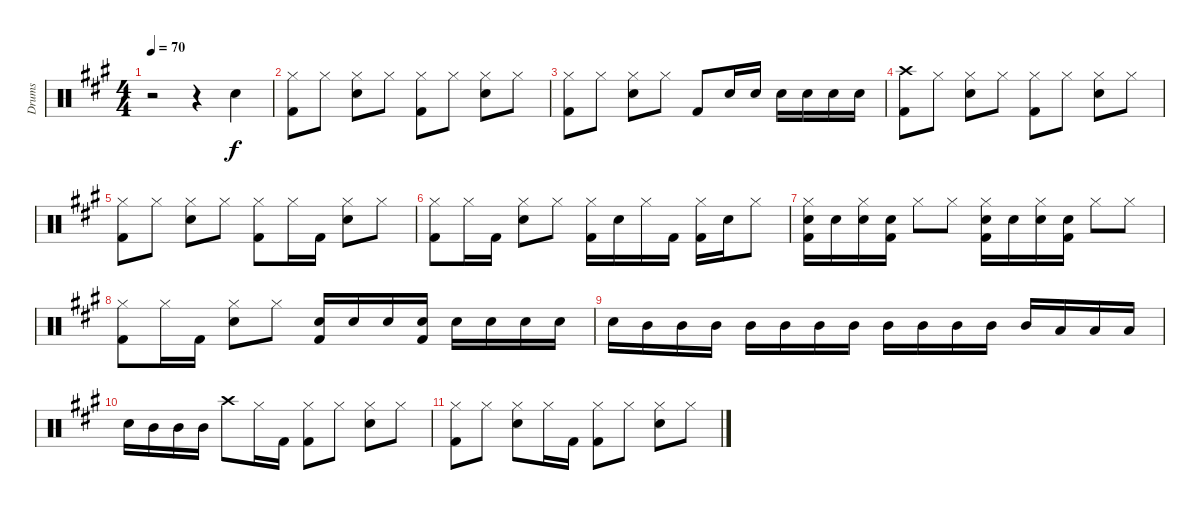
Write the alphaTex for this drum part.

\track ("Drums" "Drums") {instrument percussion}
\staff {score}
\articulation defaults
\ts (4 4)
\tempo 70
\clef neutral
\ks a
r.2{dy f} r.4 "Electric Snare (hit)"{tr (40 32)}.4 |
("Hi-Hat (closed)" "Kick (hit) 2").8 "Hi-Hat (closed)".8 ("Hi-Hat (closed)" "Electric Snare (hit)").8 "Hi-Hat (closed)".8 ("Hi-Hat (closed)" "Kick (hit) 2").8 "Hi-Hat (closed)".8 ("Hi-Hat (closed)" "Electric Snare (hit)").8 "Hi-Hat (closed)".8 |
("Hi-Hat (closed)" "Kick (hit) 2").8 "Hi-Hat (closed)".8 ("Hi-Hat (closed)" "Electric Snare (hit)").8 "Hi-Hat (closed)".8 "Kick (hit) 2".8 "Electric Snare (hit)".16 "Electric Snare (hit)".16 "Electric Snare (hit)".16 "Electric Snare (hit)".16 "Electric Snare (hit)".16 "Electric Snare (hit)".16 |
("Crash high (hit)" "Kick (hit) 2").8 "Hi-Hat (closed)".8 ("Hi-Hat (closed)" "Electric Snare (hit)").8 "Hi-Hat (closed)".8 ("Hi-Hat (closed)" "Kick (hit) 2").8 "Hi-Hat (closed)".8 ("Hi-Hat (closed)" "Electric Snare (hit)").8 "Hi-Hat (closed)".8 |
("Hi-Hat (closed)" "Kick (hit) 2").8 "Hi-Hat (closed)".8 ("Hi-Hat (closed)" "Electric Snare (hit)").8 "Hi-Hat (closed)".8 ("Hi-Hat (closed)" "Kick (hit) 2").8 "Hi-Hat (closed)".16 "Kick (hit) 2".16 ("Hi-Hat (closed)" "Electric Snare (hit)").8 "Hi-Hat (closed)".8 |
("Hi-Hat (closed)" "Kick (hit) 2").8 "Hi-Hat (closed)".16 "Kick (hit) 2".16 ("Hi-Hat (closed)" "Electric Snare (hit)").8 "Hi-Hat (closed)".8 ("Hi-Hat (closed)" "Kick (hit) 2").16 "Electric Snare (hit)".16 "Hi-Hat (closed)".16 "Kick (hit) 2".16 ("Hi-Hat (closed)" "Kick (hit) 2").16 "Electric Snare (hit)".16 "Hi-Hat (closed)".8 |
("Hi-Hat (closed)" "Electric Snare (hit)" "Kick (hit) 2").16 "Electric Snare (hit)".16 ("Hi-Hat (closed)" "Electric Snare (hit)").16 ("Electric Snare (hit)" "Kick (hit) 2").16 "Hi-Hat (closed)".8 "Hi-Hat (closed)".8 ("Hi-Hat (closed)" "Electric Snare (hit)" "Kick (hit) 2").16 "Electric Snare (hit)".16 ("Hi-Hat (closed)" "Electric Snare (hit)").16 ("Electric Snare (hit)" "Kick (hit) 2").16 "Hi-Hat (closed)".8 "Hi-Hat (closed)".8 |
("Hi-Hat (closed)" "Kick (hit) 2").8 "Hi-Hat (closed)".16 "Kick (hit) 2".16 ("Hi-Hat (closed)" "Electric Snare (hit)").8 "Hi-Hat (closed)".8 ("Electric Snare (hit)" "Kick (hit) 2").16 "Electric Snare (hit)".16 "Electric Snare (hit)".16 ("Electric Snare (hit)" "Kick (hit) 2").16 "Electric Snare (hit)".16 "Electric Snare (hit)".16 "Electric Snare (hit)".16 "Electric Snare (hit)".16 |
"Electric Snare (hit)".16 "Mid Tom (hit)".16 "Mid Tom (hit)".16 "Mid Tom (hit)".16 "Mid Tom (hit)".16 "Mid Tom (hit)".16 "Mid Tom (hit)".16 "Mid Tom (hit)".16 "Mid Tom (hit)".16 "Mid Tom (hit)".16 "Mid Tom (hit)".16 "Mid Tom (hit)".16 "Mid Tom (hit)".16 "Low Tom (hit)".16 "Low Tom (hit)".16 "Low Tom (hit)".16 |
"Electric Snare (hit)".16 "Mid Tom (hit)".16 "Mid Tom (hit)".16 "Mid Tom (hit)".16 "Crash high (hit)".8 "Hi-Hat (closed)".16 "Kick (hit) 2".16 ("Hi-Hat (closed)" "Kick (hit) 2").8 "Hi-Hat (closed)".8 ("Hi-Hat (closed)" "Electric Snare (hit)").8 "Hi-Hat (closed)".8 |
("Hi-Hat (closed)" "Kick (hit) 2").8 "Hi-Hat (closed)".8 ("Hi-Hat (closed)" "Electric Snare (hit)").8 "Hi-Hat (closed)".16 "Kick (hit) 2".16 ("Hi-Hat (closed)" "Kick (hit) 2").8 "Hi-Hat (closed)".8 ("Hi-Hat (closed)" "Electric Snare (hit)").8 "Hi-Hat (closed)".8
